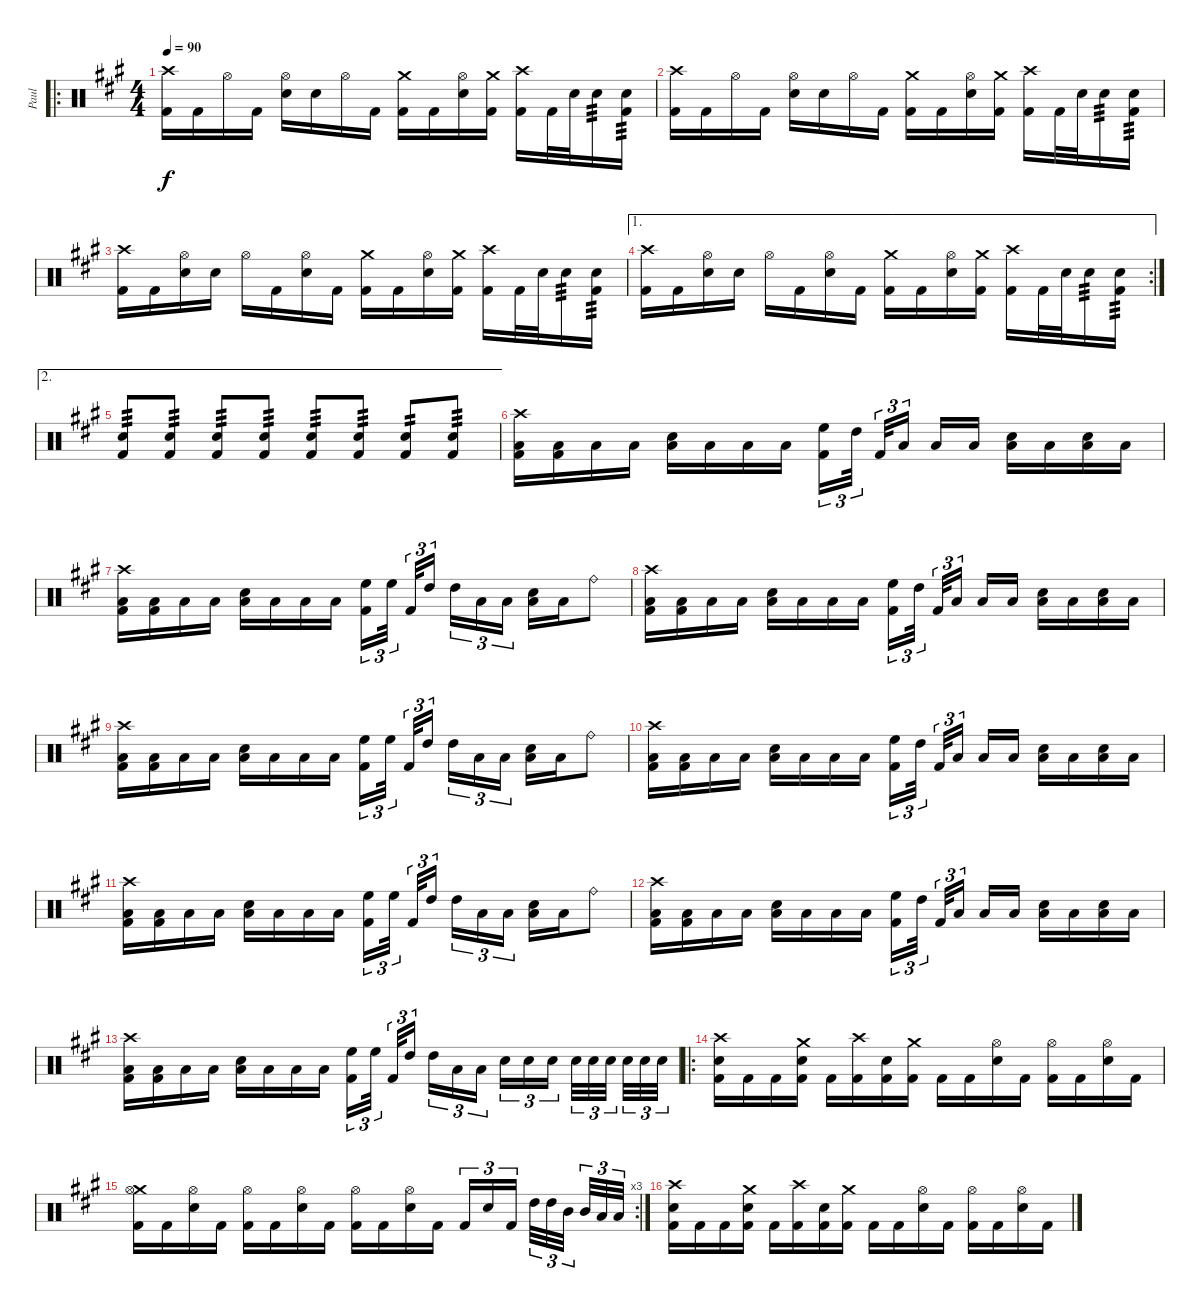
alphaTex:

\track ("Paul" "Paul") {instrument percussion}
\staff {score}
\articulation defaults
\ro
\ts (4 4)
\tempo 90
\clef neutral
\ks a
("Crash high (hit)" "Kick (hit) 2").16{dy f} "Kick (hit) 2".16 "Hi-Hat (open)".16 "Kick (hit) 2".16 ("Hi-Hat (open)" "Snare (hit) 2").16 "Snare (hit) 2".16 "Hi-Hat (open)".16 "Kick (hit) 2".16 ("Crash medium (hit)" "Kick (hit) 2").16 "Kick (hit) 2".16 ("Hi-Hat (open)" "Snare (hit) 2").16 ("Crash medium (hit)" "Kick (hit) 2").16 ("Crash high (hit)" "Kick (hit) 2").16 "Kick (hit) 2".32 "Snare (hit) 2".32 "Snare (hit) 2".16{tp 3} ("Snare (hit) 2" "Kick (hit) 2").16{tp 3} |
("Crash high (hit)" "Kick (hit) 2").16 "Kick (hit) 2".16 "Hi-Hat (open)".16 "Kick (hit) 2".16 ("Hi-Hat (open)" "Snare (hit) 2").16 "Snare (hit) 2".16 "Hi-Hat (open)".16 "Kick (hit) 2".16 ("Crash medium (hit)" "Kick (hit) 2").16 "Kick (hit) 2".16 ("Hi-Hat (open)" "Snare (hit) 2").16 ("Crash medium (hit)" "Kick (hit) 2").16 ("Crash high (hit)" "Kick (hit) 2").16 "Kick (hit) 2".32 "Snare (hit) 2".32 "Snare (hit) 2".16{tp 3} ("Snare (hit) 2" "Kick (hit) 2").16{tp 3} |
("Crash high (hit)" "Kick (hit) 2").16 "Kick (hit) 2".16 ("Hi-Hat (open)" "Snare (hit) 2").16 "Snare (hit) 2".16 "Hi-Hat (open)".16 "Kick (hit) 2".16 ("Hi-Hat (open)" "Snare (hit) 2").16 "Kick (hit) 2".16 ("Crash medium (hit)" "Kick (hit) 2").16 "Kick (hit) 2".16 ("Hi-Hat (open)" "Snare (hit) 2").16 ("Crash medium (hit)" "Kick (hit) 2").16 ("Crash high (hit)" "Kick (hit) 2").16 "Kick (hit) 2".32 "Snare (hit) 2".32 "Snare (hit) 2".16{tp 3} ("Snare (hit) 2" "Kick (hit) 2").16{tp 3} |
\ae 1
\rc 2
("Crash high (hit)" "Kick (hit) 2").16 "Kick (hit) 2".16 ("Hi-Hat (open)" "Snare (hit) 2").16 "Snare (hit) 2".16 "Hi-Hat (open)".16 "Kick (hit) 2".16 ("Hi-Hat (open)" "Snare (hit) 2").16 "Kick (hit) 2".16 ("Crash medium (hit)" "Kick (hit) 2").16 "Kick (hit) 2".16 ("Hi-Hat (open)" "Snare (hit) 2").16 ("Crash medium (hit)" "Kick (hit) 2").16 ("Crash high (hit)" "Kick (hit) 2").16 "Kick (hit) 2".32 "Snare (hit) 2".32 "Snare (hit) 2".16{tp 3} ("Snare (hit) 2" "Kick (hit) 2").16{tp 3} |
\ae 2
("Snare (hit) 2" "Kick (hit) 2").8{tp 3} ("Snare (hit) 2" "Kick (hit) 2").8{tp 3} ("Snare (hit) 2" "Kick (hit) 2").8{tp 3} ("Snare (hit) 2" "Kick (hit) 2").8{tp 3} ("Snare (hit) 2" "Kick (hit) 2").8{tp 3} ("Snare (hit) 2" "Kick (hit) 2").8{tp 3} ("Snare (hit) 2" "Kick (hit) 2").8{tp 2} ("Snare (hit) 2" "Kick (hit) 2").8{tp 3} |
("Crash high (hit)" "Low Floor Tom (hit)" "Kick (hit) 2").16 ("Low Floor Tom (hit)" "Kick (hit) 2").16 "Low Floor Tom (hit)".16 "Low Floor Tom (hit)".16 ("Snare (hit) 2" "Low Floor Tom (hit)").16 "Low Floor Tom (hit)".16 "Low Floor Tom (hit)".16 "Low Floor Tom (hit)".16 ("High Floor Tom (hit)" "Kick (hit) 2").16{tu (3 2)} "High Tom (hit)".32{tu (3 2)} "Kick (hit) 2".32{tu (3 2)} "Low Tom (hit)".16{tu (3 2)} "Low Floor Tom (hit)".16 "Low Floor Tom (hit)".16 ("Snare (hit) 2" "Low Floor Tom (hit)").16 "Low Floor Tom (hit)".16 ("Snare (hit) 2" "Low Floor Tom (hit)").16 "Low Floor Tom (hit)".16 |
("Crash high (hit)" "Low Floor Tom (hit)" "Kick (hit) 2").16 ("Low Floor Tom (hit)" "Kick (hit) 2").16 "Low Floor Tom (hit)".16 "Low Floor Tom (hit)".16 ("Snare (hit) 2" "Low Floor Tom (hit)").16 "Low Floor Tom (hit)".16 "Low Floor Tom (hit)".16 "Low Floor Tom (hit)".16 ("High Floor Tom (hit)" "Kick (hit) 2").16{tu (3 2)} "High Floor Tom (hit)".32{tu (3 2)} "Kick (hit) 2".32{tu (3 2)} "High Tom (hit)".16{tu (3 2)} "High Tom (hit)".16{tu (3 2)} "Low Tom (hit)".16{tu (3 2)} "Low Tom (hit)".16{tu (3 2)} ("Snare (hit) 2" "Low Floor Tom (hit)").16 "Low Floor Tom (hit)".16 "Ride (bell)".8 |
("Crash high (hit)" "Low Floor Tom (hit)" "Kick (hit) 2").16 ("Low Floor Tom (hit)" "Kick (hit) 2").16 "Low Floor Tom (hit)".16 "Low Floor Tom (hit)".16 ("Snare (hit) 2" "Low Floor Tom (hit)").16 "Low Floor Tom (hit)".16 "Low Floor Tom (hit)".16 "Low Floor Tom (hit)".16 ("High Floor Tom (hit)" "Kick (hit) 2").16{tu (3 2)} "High Tom (hit)".32{tu (3 2)} "Kick (hit) 2".32{tu (3 2)} "Low Tom (hit)".16{tu (3 2)} "Low Floor Tom (hit)".16 "Low Floor Tom (hit)".16 ("Snare (hit) 2" "Low Floor Tom (hit)").16 "Low Floor Tom (hit)".16 ("Snare (hit) 2" "Low Floor Tom (hit)").16 "Low Floor Tom (hit)".16 |
("Crash high (hit)" "Low Floor Tom (hit)" "Kick (hit) 2").16 ("Low Floor Tom (hit)" "Kick (hit) 2").16 "Low Floor Tom (hit)".16 "Low Floor Tom (hit)".16 ("Snare (hit) 2" "Low Floor Tom (hit)").16 "Low Floor Tom (hit)".16 "Low Floor Tom (hit)".16 "Low Floor Tom (hit)".16 ("High Floor Tom (hit)" "Kick (hit) 2").16{tu (3 2)} "High Floor Tom (hit)".32{tu (3 2)} "Kick (hit) 2".32{tu (3 2)} "High Tom (hit)".16{tu (3 2)} "High Tom (hit)".16{tu (3 2)} "Low Tom (hit)".16{tu (3 2)} "Low Tom (hit)".16{tu (3 2)} ("Snare (hit) 2" "Low Floor Tom (hit)").16 "Low Floor Tom (hit)".16 "Ride (bell)".8 |
("Crash high (hit)" "Low Floor Tom (hit)" "Kick (hit) 2").16 ("Low Floor Tom (hit)" "Kick (hit) 2").16 "Low Floor Tom (hit)".16 "Low Floor Tom (hit)".16 ("Snare (hit) 2" "Low Floor Tom (hit)").16 "Low Floor Tom (hit)".16 "Low Floor Tom (hit)".16 "Low Floor Tom (hit)".16 ("High Floor Tom (hit)" "Kick (hit) 2").16{tu (3 2)} "High Tom (hit)".32{tu (3 2)} "Kick (hit) 2".32{tu (3 2)} "Low Tom (hit)".16{tu (3 2)} "Low Floor Tom (hit)".16 "Low Floor Tom (hit)".16 ("Snare (hit) 2" "Low Floor Tom (hit)").16 "Low Floor Tom (hit)".16 ("Snare (hit) 2" "Low Floor Tom (hit)").16 "Low Floor Tom (hit)".16 |
("Crash high (hit)" "Low Floor Tom (hit)" "Kick (hit) 2").16 ("Low Floor Tom (hit)" "Kick (hit) 2").16 "Low Floor Tom (hit)".16 "Low Floor Tom (hit)".16 ("Snare (hit) 2" "Low Floor Tom (hit)").16 "Low Floor Tom (hit)".16 "Low Floor Tom (hit)".16 "Low Floor Tom (hit)".16 ("High Floor Tom (hit)" "Kick (hit) 2").16{tu (3 2)} "High Floor Tom (hit)".32{tu (3 2)} "Kick (hit) 2".32{tu (3 2)} "High Tom (hit)".16{tu (3 2)} "High Tom (hit)".16{tu (3 2)} "Low Tom (hit)".16{tu (3 2)} "Low Tom (hit)".16{tu (3 2)} ("Snare (hit) 2" "Low Floor Tom (hit)").16 "Low Floor Tom (hit)".16 "Ride (bell)".8 |
("Crash high (hit)" "Low Floor Tom (hit)" "Kick (hit) 2").16 ("Low Floor Tom (hit)" "Kick (hit) 2").16 "Low Floor Tom (hit)".16 "Low Floor Tom (hit)".16 ("Snare (hit) 2" "Low Floor Tom (hit)").16 "Low Floor Tom (hit)".16 "Low Floor Tom (hit)".16 "Low Floor Tom (hit)".16 ("High Floor Tom (hit)" "Kick (hit) 2").16{tu (3 2)} "High Tom (hit)".32{tu (3 2)} "Kick (hit) 2".32{tu (3 2)} "Low Tom (hit)".16{tu (3 2)} "Low Floor Tom (hit)".16 "Low Floor Tom (hit)".16 ("Snare (hit) 2" "Low Floor Tom (hit)").16 "Low Floor Tom (hit)".16 ("Snare (hit) 2" "Low Floor Tom (hit)").16 "Low Floor Tom (hit)".16 |
("Crash high (hit)" "Low Floor Tom (hit)" "Kick (hit) 2").16 ("Low Floor Tom (hit)" "Kick (hit) 2").16 "Low Floor Tom (hit)".16 "Low Floor Tom (hit)".16 ("Snare (hit) 2" "Low Floor Tom (hit)").16 "Low Floor Tom (hit)".16 "Low Floor Tom (hit)".16 "Low Floor Tom (hit)".16 ("High Floor Tom (hit)" "Kick (hit) 2").16{tu (3 2)} "High Floor Tom (hit)".32{tu (3 2)} "Kick (hit) 2".32{tu (3 2)} "High Tom (hit)".16{tu (3 2)} "High Tom (hit)".16{tu (3 2)} "Low Tom (hit)".16{tu (3 2)} "Low Tom (hit)".16{tu (3 2)} "Snare (hit) 2".16{tu (3 2)} "Snare (hit) 2".16{tu (3 2)} "Snare (hit) 2".16{tu (3 2)} "Snare (hit) 2".32{tu (3 2)} "Snare (hit) 2".32{tu (3 2)} "Snare (hit) 2".32{tu (3 2)} "Snare (hit) 2".32{tu (3 2)} "Snare (hit) 2".32{tu (3 2)} "Snare (hit) 2".32{tu (3 2)} |
\ro
("Crash high (hit)" "Snare (hit) 2" "Kick (hit) 2").16 "Kick (hit) 2".16 "Kick (hit) 2".16 ("Crash medium (hit)" "Snare (hit) 2" "Kick (hit) 2").16 "Kick (hit) 2".16 ("Crash high (hit)" "Kick (hit) 2").16 ("Snare (hit) 2" "Kick (hit) 2").16 ("Crash medium (hit)" "Kick (hit) 2").16 "Kick (hit) 2".16 "Kick (hit) 2".16 ("Hi-Hat (open)" "Snare (hit) 2").16 "Kick (hit) 2".16 ("Hi-Hat (open)" "Kick (hit) 2").16 "Kick (hit) 2".16 ("Hi-Hat (open)" "Snare (hit) 2").16 "Kick (hit) 2".16 |
\rc 3
("Crash medium (hit)" "Hi-Hat (open)" "Kick (hit) 2").16 "Kick (hit) 2".16 ("Hi-Hat (open)" "Snare (hit) 2").16 "Kick (hit) 2".16 ("Hi-Hat (open)" "Kick (hit) 2").16 "Kick (hit) 2".16 ("Hi-Hat (open)" "Snare (hit) 2").16 "Kick (hit) 2".16 ("Hi-Hat (open)" "Kick (hit) 2").16 "Kick (hit) 2".16 ("Hi-Hat (open)" "Snare (hit) 2").16 "Kick (hit) 2".16 "Kick (hit) 2".16{tu (3 2)} "Snare (hit) 2".16{tu (3 2)} "Kick (hit) 2".16{tu (3 2)} "High Tom (hit)".32{tu (3 2)} "High Tom (hit)".32{tu (3 2)} "Mid Tom (hit)".32{tu (3 2)} "Mid Tom (hit)".32{tu (3 2)} "Low Tom (hit)".32{tu (3 2)} "Low Tom (hit)".32{tu (3 2)} |
("Crash high (hit)" "Snare (hit) 2" "Kick (hit) 2").16 "Kick (hit) 2".16 "Kick (hit) 2".16 ("Crash medium (hit)" "Snare (hit) 2" "Kick (hit) 2").16 "Kick (hit) 2".16 ("Crash high (hit)" "Kick (hit) 2").16 ("Snare (hit) 2" "Kick (hit) 2").16 ("Crash medium (hit)" "Kick (hit) 2").16 "Kick (hit) 2".16 "Kick (hit) 2".16 ("Hi-Hat (open)" "Snare (hit) 2").16 "Kick (hit) 2".16 ("Hi-Hat (open)" "Kick (hit) 2").16 "Kick (hit) 2".16 ("Hi-Hat (open)" "Snare (hit) 2").16 "Kick (hit) 2".16
